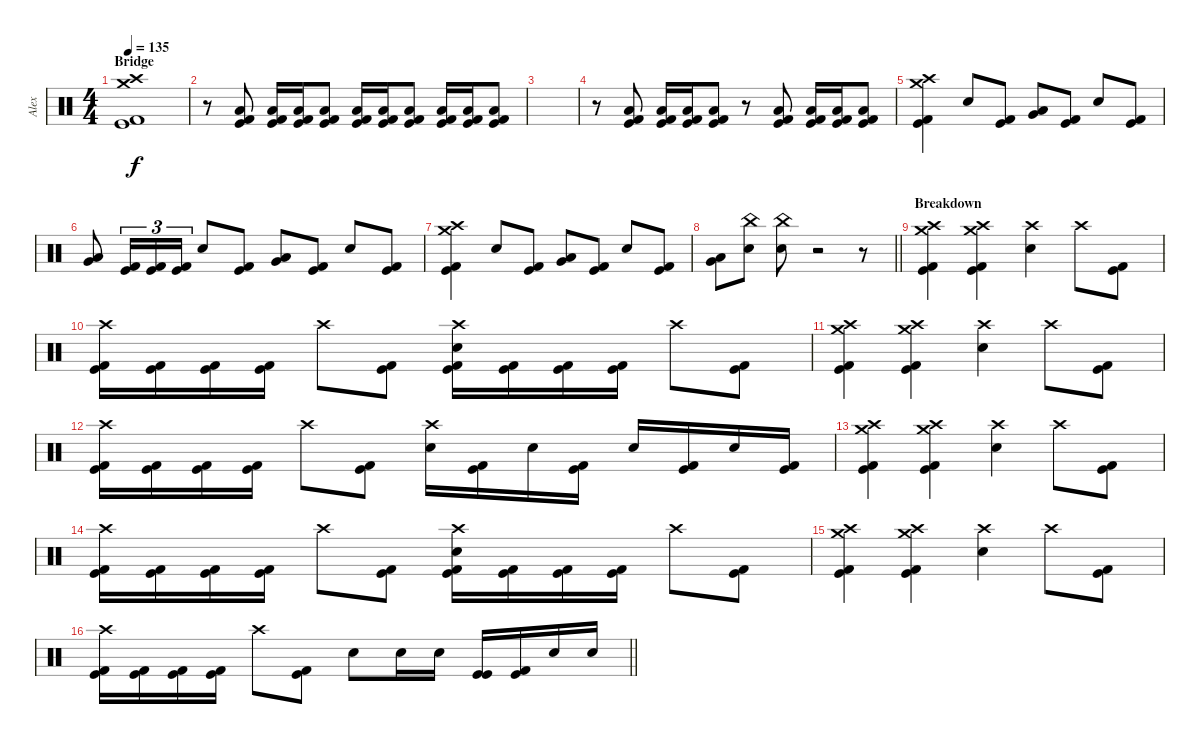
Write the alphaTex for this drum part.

\track ("Alex" "Alex") {instrument percussion}
\staff {score}
\articulation defaults
\ts (4 4)
\section ("" "Bridge")
\tempo 135
\clef neutral
\ks c
("Crash medium (hit)" "Crash high (hit)" "Kick (hit) 2" "Kick (hit)").1{dy f} |
r.8 ("Low Floor Tom (hit)" "Kick (hit) 2" "Kick (hit)").8 ("Low Floor Tom (hit)" "Kick (hit) 2" "Kick (hit)").16 ("Low Floor Tom (hit)" "Kick (hit) 2" "Kick (hit)").16 ("Low Floor Tom (hit)" "Kick (hit) 2" "Kick (hit)").8 ("Low Floor Tom (hit)" "Kick (hit) 2" "Kick (hit)").16 ("Low Floor Tom (hit)" "Kick (hit) 2" "Kick (hit)").16 ("Low Floor Tom (hit)" "Kick (hit) 2" "Kick (hit)").8 ("Low Floor Tom (hit)" "Kick (hit) 2" "Kick (hit)").16 ("Low Floor Tom (hit)" "Kick (hit) 2" "Kick (hit)").16 ("Low Floor Tom (hit)" "Kick (hit) 2" "Kick (hit)").8 |
|
r.8 ("Low Floor Tom (hit)" "Kick (hit) 2" "Kick (hit)").8 ("Low Floor Tom (hit)" "Kick (hit) 2" "Kick (hit)").16 ("Low Floor Tom (hit)" "Kick (hit) 2" "Kick (hit)").16 ("Low Floor Tom (hit)" "Kick (hit) 2" "Kick (hit)").8 r.8 ("Low Floor Tom (hit)" "Kick (hit) 2" "Kick (hit)").8 ("Low Floor Tom (hit)" "Kick (hit) 2" "Kick (hit)").16 ("Low Floor Tom (hit)" "Kick (hit) 2" "Kick (hit)").16 ("Low Floor Tom (hit)" "Kick (hit) 2" "Kick (hit)").8 |
("Crash medium (hit)" "Crash high (hit)" "Kick (hit) 2" "Kick (hit)").4 "Electric Snare (hit)".8 ("Kick (hit) 2" "Kick (hit)").8 ("Very Low Tom (hit)" "Low Floor Tom (hit)").8 ("Kick (hit) 2" "Kick (hit)").8 "Electric Snare (hit)".8 ("Kick (hit) 2" "Kick (hit)").8 |
("Very Low Tom (hit)" "Low Floor Tom (hit)").8 ("Kick (hit) 2" "Kick (hit)").16{tu (3 2)} ("Kick (hit) 2" "Kick (hit)").16{tu (3 2)} ("Kick (hit) 2" "Kick (hit)").16{tu (3 2)} "Electric Snare (hit)".8 ("Kick (hit) 2" "Kick (hit)").8 ("Very Low Tom (hit)" "Low Floor Tom (hit)").8 ("Kick (hit) 2" "Kick (hit)").8 "Electric Snare (hit)".8 ("Kick (hit) 2" "Kick (hit)").8 |
("Crash medium (hit)" "Crash high (hit)" "Kick (hit) 2" "Kick (hit)").4 "Electric Snare (hit)".8 ("Kick (hit) 2" "Kick (hit)").8 ("Very Low Tom (hit)" "Low Floor Tom (hit)").8 ("Kick (hit) 2" "Kick (hit)").8 "Electric Snare (hit)".8 ("Kick (hit) 2" "Kick (hit)").8 |
\barLineRight lightlight
("Very Low Tom (hit)" "Low Floor Tom (hit)").8 ("China (hit)" "Electric Snare (hit)").8 ("China (hit)" "Electric Snare (hit)").8 r.2 r.8 |
\section ("" "Breakdown")
("Crash medium (hit)" "Crash high (hit)" "Kick (hit) 2" "Kick (hit)").4 ("Crash medium (hit)" "Crash high (hit)" "Kick (hit) 2" "Kick (hit)").4 ("Crash high (hit)" "Electric Snare (hit)").4 "Crash high (hit)".8 ("Kick (hit) 2" "Kick (hit)").8 |
("Crash high (hit)" "Kick (hit) 2" "Kick (hit)").16 ("Kick (hit) 2" "Kick (hit)").16 ("Kick (hit) 2" "Kick (hit)").16 ("Kick (hit) 2" "Kick (hit)").16 "Crash high (hit)".8 ("Kick (hit) 2" "Kick (hit)").8 ("Crash high (hit)" "Electric Snare (hit)" "Kick (hit) 2" "Kick (hit)").16 ("Kick (hit) 2" "Kick (hit)").16 ("Kick (hit) 2" "Kick (hit)").16 ("Kick (hit) 2" "Kick (hit)").16 "Crash high (hit)".8 ("Kick (hit) 2" "Kick (hit)").8 |
("Crash medium (hit)" "Crash high (hit)" "Kick (hit) 2" "Kick (hit)").4 ("Crash medium (hit)" "Crash high (hit)" "Kick (hit) 2" "Kick (hit)").4 ("Crash high (hit)" "Electric Snare (hit)").4 "Crash high (hit)".8 ("Kick (hit) 2" "Kick (hit)").8 |
("Crash high (hit)" "Kick (hit) 2" "Kick (hit)").16 ("Kick (hit) 2" "Kick (hit)").16 ("Kick (hit) 2" "Kick (hit)").16 ("Kick (hit) 2" "Kick (hit)").16 "Crash high (hit)".8 ("Kick (hit) 2" "Kick (hit)").8 ("Crash high (hit)" "Electric Snare (hit)").16 ("Kick (hit) 2" "Kick (hit)").16 "Electric Snare (hit)".16 ("Kick (hit) 2" "Kick (hit)").16 "Electric Snare (hit)".16 ("Kick (hit) 2" "Kick (hit)").16 "Electric Snare (hit)".16 ("Kick (hit) 2" "Kick (hit)").16 |
("Crash medium (hit)" "Crash high (hit)" "Kick (hit) 2" "Kick (hit)").4 ("Crash medium (hit)" "Crash high (hit)" "Kick (hit) 2" "Kick (hit)").4 ("Crash high (hit)" "Electric Snare (hit)").4 "Crash high (hit)".8 ("Kick (hit) 2" "Kick (hit)").8 |
("Crash high (hit)" "Kick (hit) 2" "Kick (hit)").16 ("Kick (hit) 2" "Kick (hit)").16 ("Kick (hit) 2" "Kick (hit)").16 ("Kick (hit) 2" "Kick (hit)").16 "Crash high (hit)".8 ("Kick (hit) 2" "Kick (hit)").8 ("Crash high (hit)" "Electric Snare (hit)" "Kick (hit) 2" "Kick (hit)").16 ("Kick (hit) 2" "Kick (hit)").16 ("Kick (hit) 2" "Kick (hit)").16 ("Kick (hit) 2" "Kick (hit)").16 "Crash high (hit)".8 ("Kick (hit) 2" "Kick (hit)").8 |
("Crash medium (hit)" "Crash high (hit)" "Kick (hit) 2" "Kick (hit)").4 ("Crash medium (hit)" "Crash high (hit)" "Kick (hit) 2" "Kick (hit)").4 ("Crash high (hit)" "Electric Snare (hit)").4 "Crash high (hit)".8 ("Kick (hit) 2" "Kick (hit)").8 |
\barLineRight lightlight
("Crash high (hit)" "Kick (hit) 2" "Kick (hit)").16 ("Kick (hit) 2" "Kick (hit)").16 ("Kick (hit) 2" "Kick (hit)").16 ("Kick (hit) 2" "Kick (hit)").16 "Crash high (hit)".8 ("Kick (hit) 2" "Kick (hit)").8 "Electric Snare (hit)".8 "Electric Snare (hit)".16 "Electric Snare (hit)".16 ("Kick (hit)" "Kick (hit)").16 ("Kick (hit) 2" "Kick (hit)").16 "Electric Snare (hit)".16 "Electric Snare (hit)".16
